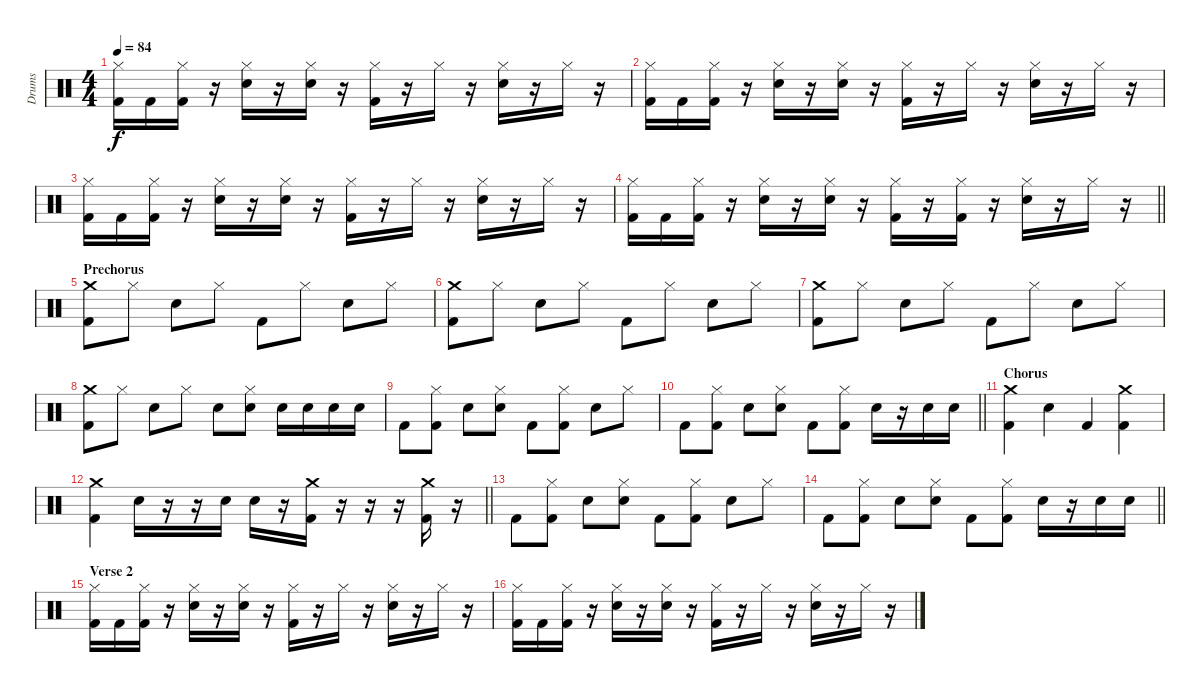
\track ("Drums" "Drums") {instrument percussion}
\staff {score}
\articulation defaults
\ts (4 4)
\tempo 84
\clef neutral
\ks c
("Hi-Hat (closed)" "Kick (hit) 2").16{dy f} "Kick (hit) 2".16 ("Hi-Hat (closed)" "Kick (hit) 2").16 r.16 ("Hi-Hat (closed)" "Snare (hit) 2").16 r.16 ("Hi-Hat (closed)" "Snare (hit) 2").16 r.16 ("Hi-Hat (closed)" "Kick (hit) 2").16 r.16 "Hi-Hat (closed)".16 r.16 ("Hi-Hat (closed)" "Snare (hit) 2").16 r.16 "Hi-Hat (closed)".16 r.16 |
("Hi-Hat (closed)" "Kick (hit) 2").16 "Kick (hit) 2".16 ("Hi-Hat (closed)" "Kick (hit) 2").16 r.16 ("Hi-Hat (closed)" "Snare (hit) 2").16 r.16 ("Hi-Hat (closed)" "Snare (hit) 2").16 r.16 ("Hi-Hat (closed)" "Kick (hit) 2").16 r.16 "Hi-Hat (closed)".16 r.16 ("Hi-Hat (closed)" "Snare (hit) 2").16 r.16 "Hi-Hat (closed)".16 r.16 |
("Hi-Hat (closed)" "Kick (hit) 2").16 "Kick (hit) 2".16 ("Hi-Hat (closed)" "Kick (hit) 2").16 r.16 ("Hi-Hat (closed)" "Snare (hit) 2").16 r.16 ("Hi-Hat (closed)" "Snare (hit) 2").16 r.16 ("Hi-Hat (closed)" "Kick (hit) 2").16 r.16 "Hi-Hat (closed)".16 r.16 ("Hi-Hat (closed)" "Snare (hit) 2").16 r.16 "Hi-Hat (closed)".16 r.16 |
\barLineRight lightlight
("Hi-Hat (closed)" "Kick (hit) 2").16 "Kick (hit) 2".16 ("Hi-Hat (closed)" "Kick (hit) 2").16 r.16 ("Hi-Hat (closed)" "Snare (hit) 2").16 r.16 ("Hi-Hat (closed)" "Snare (hit) 2").16 r.16 ("Hi-Hat (closed)" "Kick (hit) 2").16 r.16 ("Hi-Hat (closed)" "Kick (hit) 2").16 r.16 ("Hi-Hat (closed)" "Snare (hit) 2").16 r.16 "Hi-Hat (closed)".16 r.16 |
\section ("" "Prechorus")
("Crash medium (hit)" "Kick (hit) 2").8 "Hi-Hat (closed)".8 "Snare (hit) 2".8 "Hi-Hat (closed)".8 "Kick (hit) 2".8 "Hi-Hat (closed)".8 "Snare (hit) 2".8 "Hi-Hat (closed)".8 |
("Crash medium (hit)" "Kick (hit) 2").8 "Hi-Hat (closed)".8 "Snare (hit) 2".8 "Hi-Hat (closed)".8 "Kick (hit) 2".8 "Hi-Hat (closed)".8 "Snare (hit) 2".8 "Hi-Hat (closed)".8 |
("Crash medium (hit)" "Kick (hit) 2").8 "Hi-Hat (closed)".8 "Snare (hit) 2".8 "Hi-Hat (closed)".8 "Kick (hit) 2".8 "Hi-Hat (closed)".8 "Snare (hit) 2".8 "Hi-Hat (closed)".8 |
("Crash medium (hit)" "Kick (hit) 2").8 "Hi-Hat (closed)".8 "Snare (hit) 2".8 "Hi-Hat (closed)".8 "Snare (hit) 2".8 ("Hi-Hat (closed)" "Snare (hit) 2").8 "Snare (hit) 2".16 "Snare (hit) 2".16 "Snare (hit) 2".16 "Snare (hit) 2".16 |
"Kick (hit) 2".8 ("Hi-Hat (closed)" "Kick (hit) 2").8 "Snare (hit) 2".8 ("Hi-Hat (closed)" "Snare (hit) 2").8 "Kick (hit) 2".8 ("Hi-Hat (closed)" "Kick (hit) 2").8 "Snare (hit) 2".8 "Hi-Hat (closed)".8 |
\barLineRight lightlight "Kick (hit) 2".8
("Hi-Hat (closed)" "Kick (hit) 2").8 "Snare (hit) 2".8 ("Hi-Hat (closed)" "Snare (hit) 2").8 "Kick (hit) 2".8 ("Hi-Hat (closed)" "Kick (hit) 2").8 "Snare (hit) 2".16 r.16 "Snare (hit) 2".16 "Snare (hit) 2".16 |
\section ("" "Chorus")
("Crash medium (hit)" "Kick (hit) 2").4 "Snare (hit) 2".4 "Kick (hit) 2".4 ("Crash medium (hit)" "Kick (hit) 2").4 |
\barLineRight lightlight
("Crash medium (hit)" "Kick (hit) 2").4 "Snare (hit) 2".16 r.16 r.16 "Snare (hit) 2".16 "Snare (hit) 2".16 r.16 ("Crash medium (hit)" "Kick (hit) 2").16 r.16 r.16 r.16 ("Crash medium (hit)" "Kick (hit) 2").16 r.16 |
"Kick (hit) 2".8 ("Hi-Hat (closed)" "Kick (hit) 2").8 "Snare (hit) 2".8 ("Hi-Hat (closed)" "Snare (hit) 2").8 "Kick (hit) 2".8 ("Hi-Hat (closed)" "Kick (hit) 2").8 "Snare (hit) 2".8 "Hi-Hat (closed)".8 |
\barLineRight lightlight "Kick (hit) 2".8
("Hi-Hat (closed)" "Kick (hit) 2").8 "Snare (hit) 2".8 ("Hi-Hat (closed)" "Snare (hit) 2").8 "Kick (hit) 2".8 ("Hi-Hat (closed)" "Kick (hit) 2").8 "Snare (hit) 2".16 r.16 "Snare (hit) 2".16 "Snare (hit) 2".16 |
\section ("" "Verse 2")
("Hi-Hat (closed)" "Kick (hit) 2").16 "Kick (hit) 2".16 ("Hi-Hat (closed)" "Kick (hit) 2").16 r.16 ("Hi-Hat (closed)" "Snare (hit) 2").16 r.16 ("Hi-Hat (closed)" "Snare (hit) 2").16 r.16 ("Hi-Hat (closed)" "Kick (hit) 2").16 r.16 "Hi-Hat (closed)".16 r.16 ("Hi-Hat (closed)" "Snare (hit) 2").16 r.16 "Hi-Hat (closed)".16 r.16 |
("Hi-Hat (closed)" "Kick (hit) 2").16 "Kick (hit) 2".16 ("Hi-Hat (closed)" "Kick (hit) 2").16 r.16 ("Hi-Hat (closed)" "Snare (hit) 2").16 r.16 ("Hi-Hat (closed)" "Snare (hit) 2").16 r.16 ("Hi-Hat (closed)" "Kick (hit) 2").16 r.16 "Hi-Hat (closed)".16 r.16 ("Hi-Hat (closed)" "Snare (hit) 2").16 r.16 "Hi-Hat (closed)".16 r.16
